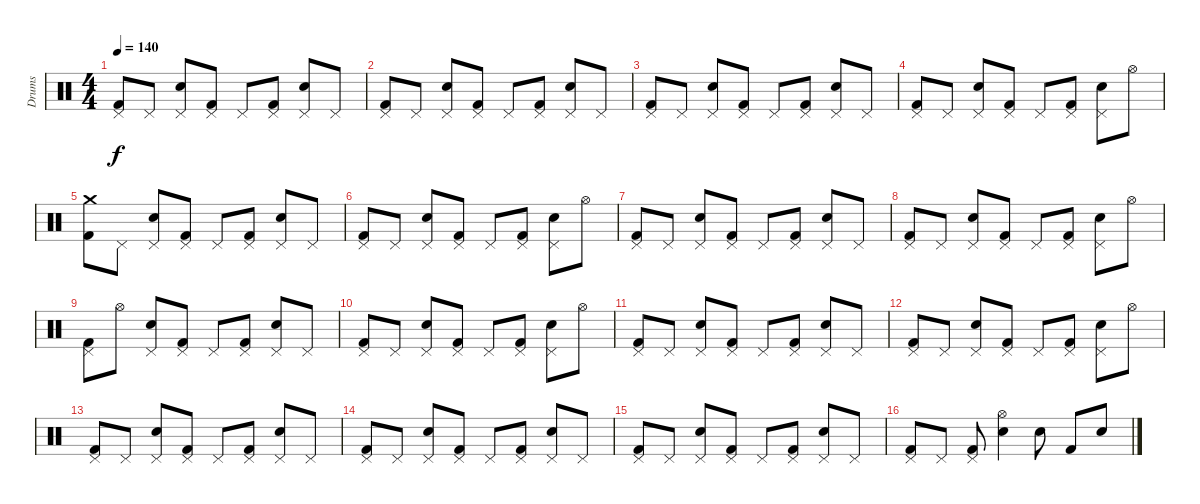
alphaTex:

\track ("Drums" "Drums") {instrument percussion}
\staff {score}
\articulation defaults
\ts (4 4)
\tempo 140
\clef neutral
\ks c
("Pedal Hi-Hat (hit)" "Kick (hit) 2").8{dy f} "Pedal Hi-Hat (hit)".8 ("Pedal Hi-Hat (hit)" "Electric Snare (hit)").8 ("Pedal Hi-Hat (hit)" "Kick (hit) 2").8 "Pedal Hi-Hat (hit)".8 ("Pedal Hi-Hat (hit)" "Kick (hit) 2").8 ("Pedal Hi-Hat (hit)" "Electric Snare (hit)").8 "Pedal Hi-Hat (hit)".8 |
("Pedal Hi-Hat (hit)" "Kick (hit) 2").8 "Pedal Hi-Hat (hit)".8 ("Pedal Hi-Hat (hit)" "Electric Snare (hit)").8 ("Pedal Hi-Hat (hit)" "Kick (hit) 2").8 "Pedal Hi-Hat (hit)".8 ("Pedal Hi-Hat (hit)" "Kick (hit) 2").8 ("Pedal Hi-Hat (hit)" "Electric Snare (hit)").8 "Pedal Hi-Hat (hit)".8 |
("Pedal Hi-Hat (hit)" "Kick (hit) 2").8 "Pedal Hi-Hat (hit)".8 ("Pedal Hi-Hat (hit)" "Electric Snare (hit)").8 ("Pedal Hi-Hat (hit)" "Kick (hit) 2").8 "Pedal Hi-Hat (hit)".8 ("Pedal Hi-Hat (hit)" "Kick (hit) 2").8 ("Pedal Hi-Hat (hit)" "Electric Snare (hit)").8 "Pedal Hi-Hat (hit)".8 |
("Pedal Hi-Hat (hit)" "Kick (hit) 2").8 "Pedal Hi-Hat (hit)".8 ("Pedal Hi-Hat (hit)" "Electric Snare (hit)").8 ("Pedal Hi-Hat (hit)" "Kick (hit) 2").8 "Pedal Hi-Hat (hit)".8 ("Pedal Hi-Hat (hit)" "Kick (hit) 2").8 ("Pedal Hi-Hat (hit)" "Electric Snare (hit)").8 "Hi-Hat (open)".8 |
("Crash medium (hit)" "Kick (hit) 2").8 "Pedal Hi-Hat (hit)".8 ("Pedal Hi-Hat (hit)" "Electric Snare (hit)").8 ("Pedal Hi-Hat (hit)" "Kick (hit) 2").8 "Pedal Hi-Hat (hit)".8 ("Pedal Hi-Hat (hit)" "Kick (hit) 2").8 ("Pedal Hi-Hat (hit)" "Electric Snare (hit)").8 "Pedal Hi-Hat (hit)".8 |
("Pedal Hi-Hat (hit)" "Kick (hit) 2").8 "Pedal Hi-Hat (hit)".8 ("Pedal Hi-Hat (hit)" "Electric Snare (hit)").8 ("Pedal Hi-Hat (hit)" "Kick (hit) 2").8 "Pedal Hi-Hat (hit)".8 ("Pedal Hi-Hat (hit)" "Kick (hit) 2").8 ("Pedal Hi-Hat (hit)" "Electric Snare (hit)").8 "Hi-Hat (open)".8 |
("Pedal Hi-Hat (hit)" "Kick (hit) 2").8 "Pedal Hi-Hat (hit)".8 ("Pedal Hi-Hat (hit)" "Electric Snare (hit)").8 ("Pedal Hi-Hat (hit)" "Kick (hit) 2").8 "Pedal Hi-Hat (hit)".8 ("Pedal Hi-Hat (hit)" "Kick (hit) 2").8 ("Pedal Hi-Hat (hit)" "Electric Snare (hit)").8 "Pedal Hi-Hat (hit)".8 |
("Pedal Hi-Hat (hit)" "Kick (hit) 2").8 "Pedal Hi-Hat (hit)".8 ("Pedal Hi-Hat (hit)" "Electric Snare (hit)").8 ("Pedal Hi-Hat (hit)" "Kick (hit) 2").8 "Pedal Hi-Hat (hit)".8 ("Pedal Hi-Hat (hit)" "Kick (hit) 2").8 ("Pedal Hi-Hat (hit)" "Electric Snare (hit)").8 "Hi-Hat (open)".8 |
("Pedal Hi-Hat (hit)" "Kick (hit) 2").8 "Hi-Hat (open)".8 ("Pedal Hi-Hat (hit)" "Electric Snare (hit)").8 ("Pedal Hi-Hat (hit)" "Kick (hit) 2").8 "Pedal Hi-Hat (hit)".8 ("Pedal Hi-Hat (hit)" "Kick (hit) 2").8 ("Pedal Hi-Hat (hit)" "Electric Snare (hit)").8 "Pedal Hi-Hat (hit)".8 |
("Pedal Hi-Hat (hit)" "Kick (hit) 2").8 "Pedal Hi-Hat (hit)".8 ("Pedal Hi-Hat (hit)" "Electric Snare (hit)").8 ("Pedal Hi-Hat (hit)" "Kick (hit) 2").8 "Pedal Hi-Hat (hit)".8 ("Pedal Hi-Hat (hit)" "Kick (hit) 2").8 ("Pedal Hi-Hat (hit)" "Electric Snare (hit)").8 "Hi-Hat (open)".8 |
("Pedal Hi-Hat (hit)" "Kick (hit) 2").8 "Pedal Hi-Hat (hit)".8 ("Pedal Hi-Hat (hit)" "Electric Snare (hit)").8 ("Pedal Hi-Hat (hit)" "Kick (hit) 2").8 "Pedal Hi-Hat (hit)".8 ("Pedal Hi-Hat (hit)" "Kick (hit) 2").8 ("Pedal Hi-Hat (hit)" "Electric Snare (hit)").8 "Pedal Hi-Hat (hit)".8 |
("Pedal Hi-Hat (hit)" "Kick (hit) 2").8 "Pedal Hi-Hat (hit)".8 ("Pedal Hi-Hat (hit)" "Electric Snare (hit)").8 ("Pedal Hi-Hat (hit)" "Kick (hit) 2").8 "Pedal Hi-Hat (hit)".8 ("Pedal Hi-Hat (hit)" "Kick (hit) 2").8 ("Pedal Hi-Hat (hit)" "Electric Snare (hit)").8 "Hi-Hat (open)".8 |
("Pedal Hi-Hat (hit)" "Kick (hit) 2").8 "Pedal Hi-Hat (hit)".8 ("Pedal Hi-Hat (hit)" "Electric Snare (hit)").8 ("Pedal Hi-Hat (hit)" "Kick (hit) 2").8 "Pedal Hi-Hat (hit)".8 ("Pedal Hi-Hat (hit)" "Kick (hit) 2").8 ("Pedal Hi-Hat (hit)" "Electric Snare (hit)").8 "Pedal Hi-Hat (hit)".8 |
("Pedal Hi-Hat (hit)" "Kick (hit) 2").8 "Pedal Hi-Hat (hit)".8 ("Pedal Hi-Hat (hit)" "Electric Snare (hit)").8 ("Pedal Hi-Hat (hit)" "Kick (hit) 2").8 "Pedal Hi-Hat (hit)".8 ("Pedal Hi-Hat (hit)" "Kick (hit) 2").8 ("Pedal Hi-Hat (hit)" "Electric Snare (hit)").8 "Pedal Hi-Hat (hit)".8 |
("Pedal Hi-Hat (hit)" "Kick (hit) 2").8 "Pedal Hi-Hat (hit)".8 ("Pedal Hi-Hat (hit)" "Electric Snare (hit)").8 ("Pedal Hi-Hat (hit)" "Kick (hit) 2").8 "Pedal Hi-Hat (hit)".8 ("Pedal Hi-Hat (hit)" "Kick (hit) 2").8 ("Pedal Hi-Hat (hit)" "Electric Snare (hit)").8 "Pedal Hi-Hat (hit)".8 |
("Pedal Hi-Hat (hit)" "Kick (hit) 2").8 "Pedal Hi-Hat (hit)".8 ("Pedal Hi-Hat (hit)" "Kick (hit) 2").8 ("Electric Snare (hit)" "Hi-Hat (open)").4 "Electric Snare (hit)".8 "Kick (hit) 2".8 "Electric Snare (hit)".8
